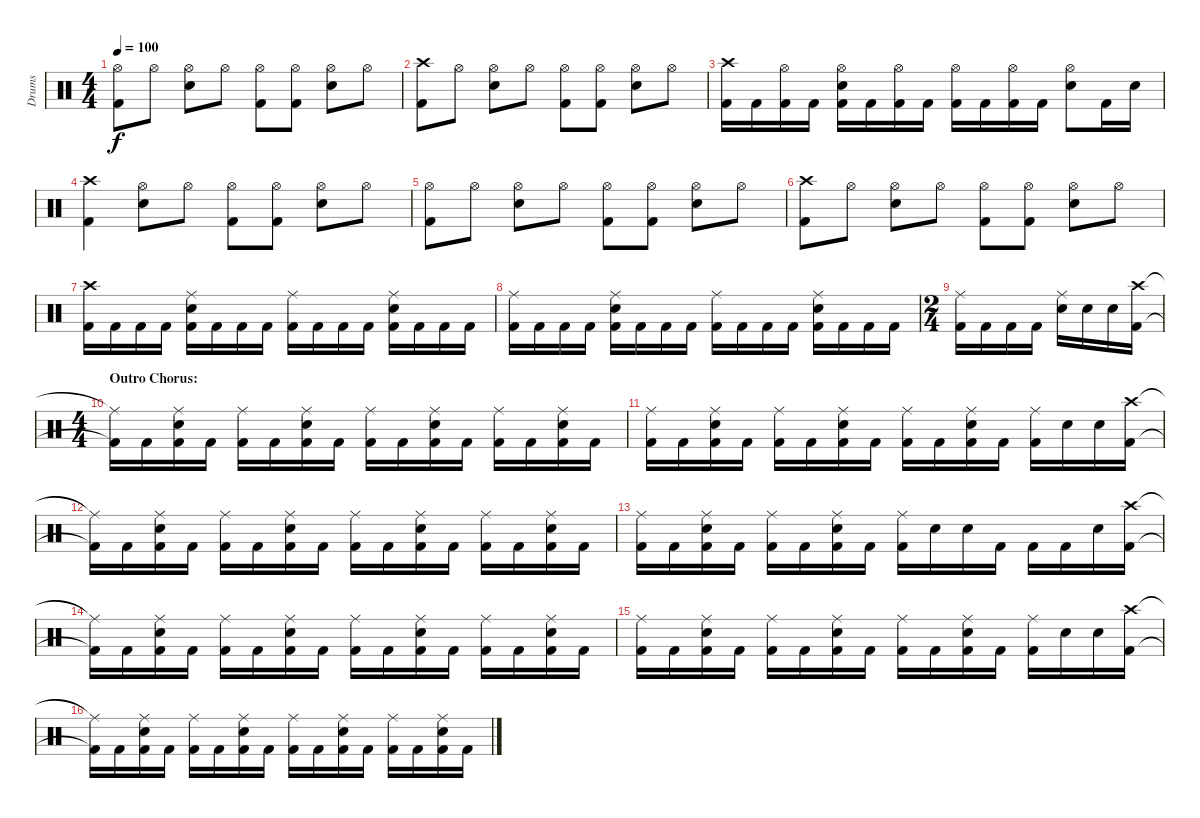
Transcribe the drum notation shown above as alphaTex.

\track ("Drums" "Drums") {instrument percussion}
\staff {score}
\articulation defaults
\ts (4 4)
\tempo 100
\clef neutral
\ks c
("Hi-Hat (open)" "Kick (hit) 2").8{dy f} "Hi-Hat (open)".8 ("Hi-Hat (open)" "Electric Snare (hit)").8 "Hi-Hat (open)".8 ("Hi-Hat (open)" "Kick (hit) 2").8 ("Hi-Hat (open)" "Kick (hit) 2").8 ("Hi-Hat (open)" "Electric Snare (hit)").8 "Hi-Hat (open)".8 |
("Crash high (hit)" "Kick (hit) 2").8 "Hi-Hat (open)".8 ("Hi-Hat (open)" "Electric Snare (hit)").8 "Hi-Hat (open)".8 ("Hi-Hat (open)" "Kick (hit) 2").8 ("Hi-Hat (open)" "Kick (hit) 2").8 ("Hi-Hat (open)" "Electric Snare (hit)").8 "Hi-Hat (open)".8 |
("Crash high (hit)" "Kick (hit) 2").16 "Kick (hit) 2".16 ("Hi-Hat (open)" "Kick (hit) 2").16 "Kick (hit) 2".16 ("Hi-Hat (open)" "Electric Snare (hit)" "Kick (hit) 2").16 "Kick (hit) 2".16 ("Hi-Hat (open)" "Kick (hit) 2").16 "Kick (hit) 2".16 ("Hi-Hat (open)" "Kick (hit) 2").16 "Kick (hit) 2".16 ("Hi-Hat (open)" "Kick (hit) 2").16 "Kick (hit) 2".16 ("Hi-Hat (open)" "Electric Snare (hit)").8 "Kick (hit) 2".16 "Electric Snare (hit)".16 |
("Crash high (hit)" "Kick (hit) 2").4 ("Hi-Hat (open)" "Electric Snare (hit)").8 "Hi-Hat (open)".8 ("Hi-Hat (open)" "Kick (hit) 2").8 ("Hi-Hat (open)" "Kick (hit) 2").8 ("Hi-Hat (open)" "Electric Snare (hit)").8 "Hi-Hat (open)".8 |
("Hi-Hat (open)" "Kick (hit) 2").8 "Hi-Hat (open)".8 ("Hi-Hat (open)" "Electric Snare (hit)").8 "Hi-Hat (open)".8 ("Hi-Hat (open)" "Kick (hit) 2").8 ("Hi-Hat (open)" "Kick (hit) 2").8 ("Hi-Hat (open)" "Electric Snare (hit)").8 "Hi-Hat (open)".8 |
("Crash high (hit)" "Kick (hit) 2").8 "Hi-Hat (open)".8 ("Hi-Hat (open)" "Electric Snare (hit)").8 "Hi-Hat (open)".8 ("Hi-Hat (open)" "Kick (hit) 2").8 ("Hi-Hat (open)" "Kick (hit) 2").8 ("Hi-Hat (open)" "Electric Snare (hit)").8 "Hi-Hat (open)".8 |
("Crash high (hit)" "Kick (hit) 2").16 "Kick (hit) 2".16 "Kick (hit) 2".16 "Kick (hit) 2".16 ("Ride (middle)" "Electric Snare (hit)" "Kick (hit) 2").16 "Kick (hit) 2".16 "Kick (hit) 2".16 "Kick (hit) 2".16 ("Ride (middle)" "Kick (hit) 2").16 "Kick (hit) 2".16 "Kick (hit) 2".16 "Kick (hit) 2".16 ("Ride (middle)" "Electric Snare (hit)" "Kick (hit) 2").16 "Kick (hit) 2".16 "Kick (hit) 2".16 "Kick (hit) 2".16 |
("Ride (middle)" "Kick (hit) 2").16 "Kick (hit) 2".16 "Kick (hit) 2".16 "Kick (hit) 2".16 ("Ride (middle)" "Electric Snare (hit)" "Kick (hit) 2").16 "Kick (hit) 2".16 "Kick (hit) 2".16 "Kick (hit) 2".16 ("Ride (middle)" "Kick (hit) 2").16 "Kick (hit) 2".16 "Kick (hit) 2".16 "Kick (hit) 2".16 ("Ride (middle)" "Electric Snare (hit)" "Kick (hit) 2").16 "Kick (hit) 2".16 "Kick (hit) 2".16 "Kick (hit) 2".16 |
\ts (2 4)
("Ride (middle)" "Kick (hit) 2").16 "Kick (hit) 2".16 "Kick (hit) 2".16 "Kick (hit) 2".16 ("Ride (middle)" "Electric Snare (hit)").16 "Electric Snare (hit)".16 "Electric Snare (hit)".16 ("Crash high (hit)" "Kick (hit) 2").16 |
\ts (4 4)
\section ("" "Outro Chorus:")
("Ride (middle)"{t} "Kick (hit) 2"{t}).16 "Kick (hit) 2".16 ("Ride (middle)" "Electric Snare (hit)" "Kick (hit) 2").16 "Kick (hit) 2".16 ("Ride (middle)" "Kick (hit) 2").16 "Kick (hit) 2".16 ("Ride (middle)" "Electric Snare (hit)" "Kick (hit) 2").16 "Kick (hit) 2".16 ("Ride (middle)" "Kick (hit) 2").16 "Kick (hit) 2".16 ("Ride (middle)" "Electric Snare (hit)" "Kick (hit) 2").16 "Kick (hit) 2".16 ("Ride (middle)" "Kick (hit) 2").16 "Kick (hit) 2".16 ("Ride (middle)" "Electric Snare (hit)" "Kick (hit) 2").16 "Kick (hit) 2".16 |
("Ride (middle)" "Kick (hit) 2").16 "Kick (hit) 2".16 ("Ride (middle)" "Electric Snare (hit)" "Kick (hit) 2").16 "Kick (hit) 2".16 ("Ride (middle)" "Kick (hit) 2").16 "Kick (hit) 2".16 ("Ride (middle)" "Electric Snare (hit)" "Kick (hit) 2").16 "Kick (hit) 2".16 ("Ride (middle)" "Kick (hit) 2").16 "Kick (hit) 2".16 ("Ride (middle)" "Electric Snare (hit)" "Kick (hit) 2").16 "Kick (hit) 2".16 ("Ride (middle)" "Kick (hit) 2").16 "Electric Snare (hit)".16 "Electric Snare (hit)".16 ("Crash high (hit)" "Kick (hit) 2").16 |
("Ride (middle)"{t} "Kick (hit) 2"{t}).16 "Kick (hit) 2".16 ("Ride (middle)" "Electric Snare (hit)" "Kick (hit) 2").16 "Kick (hit) 2".16 ("Ride (middle)" "Kick (hit) 2").16 "Kick (hit) 2".16 ("Ride (middle)" "Electric Snare (hit)" "Kick (hit) 2").16 "Kick (hit) 2".16 ("Ride (middle)" "Kick (hit) 2").16 "Kick (hit) 2".16 ("Ride (middle)" "Electric Snare (hit)" "Kick (hit) 2").16 "Kick (hit) 2".16 ("Ride (middle)" "Kick (hit) 2").16 "Kick (hit) 2".16 ("Ride (middle)" "Electric Snare (hit)" "Kick (hit) 2").16 "Kick (hit) 2".16 |
("Ride (middle)" "Kick (hit) 2").16 "Kick (hit) 2".16 ("Ride (middle)" "Electric Snare (hit)" "Kick (hit) 2").16 "Kick (hit) 2".16 ("Ride (middle)" "Kick (hit) 2").16 "Kick (hit) 2".16 ("Ride (middle)" "Electric Snare (hit)" "Kick (hit) 2").16 "Kick (hit) 2".16 ("Ride (middle)" "Kick (hit) 2").16 "Electric Snare (hit)".16 "Electric Snare (hit)".16 "Kick (hit) 2".16 "Kick (hit) 2".16 "Kick (hit) 2".16 "Electric Snare (hit)".16 ("Crash high (hit)" "Kick (hit) 2").16 |
("Ride (middle)"{t} "Kick (hit) 2"{t}).16 "Kick (hit) 2".16 ("Ride (middle)" "Electric Snare (hit)" "Kick (hit) 2").16 "Kick (hit) 2".16 ("Ride (middle)" "Kick (hit) 2").16 "Kick (hit) 2".16 ("Ride (middle)" "Electric Snare (hit)" "Kick (hit) 2").16 "Kick (hit) 2".16 ("Ride (middle)" "Kick (hit) 2").16 "Kick (hit) 2".16 ("Ride (middle)" "Electric Snare (hit)" "Kick (hit) 2").16 "Kick (hit) 2".16 ("Ride (middle)" "Kick (hit) 2").16 "Kick (hit) 2".16 ("Ride (middle)" "Electric Snare (hit)" "Kick (hit) 2").16 "Kick (hit) 2".16 |
("Ride (middle)" "Kick (hit) 2").16 "Kick (hit) 2".16 ("Ride (middle)" "Electric Snare (hit)" "Kick (hit) 2").16 "Kick (hit) 2".16 ("Ride (middle)" "Kick (hit) 2").16 "Kick (hit) 2".16 ("Ride (middle)" "Electric Snare (hit)" "Kick (hit) 2").16 "Kick (hit) 2".16 ("Ride (middle)" "Kick (hit) 2").16 "Kick (hit) 2".16 ("Ride (middle)" "Electric Snare (hit)" "Kick (hit) 2").16 "Kick (hit) 2".16 ("Ride (middle)" "Kick (hit) 2").16 "Electric Snare (hit)".16 "Electric Snare (hit)".16 ("Crash high (hit)" "Kick (hit) 2").16 |
("Ride (middle)"{t} "Kick (hit) 2"{t}).16 "Kick (hit) 2".16 ("Ride (middle)" "Electric Snare (hit)" "Kick (hit) 2").16 "Kick (hit) 2".16 ("Ride (middle)" "Kick (hit) 2").16 "Kick (hit) 2".16 ("Ride (middle)" "Electric Snare (hit)" "Kick (hit) 2").16 "Kick (hit) 2".16 ("Ride (middle)" "Kick (hit) 2").16 "Kick (hit) 2".16 ("Ride (middle)" "Electric Snare (hit)" "Kick (hit) 2").16 "Kick (hit) 2".16 ("Ride (middle)" "Kick (hit) 2").16 "Kick (hit) 2".16 ("Ride (middle)" "Electric Snare (hit)" "Kick (hit) 2").16 "Kick (hit) 2".16
